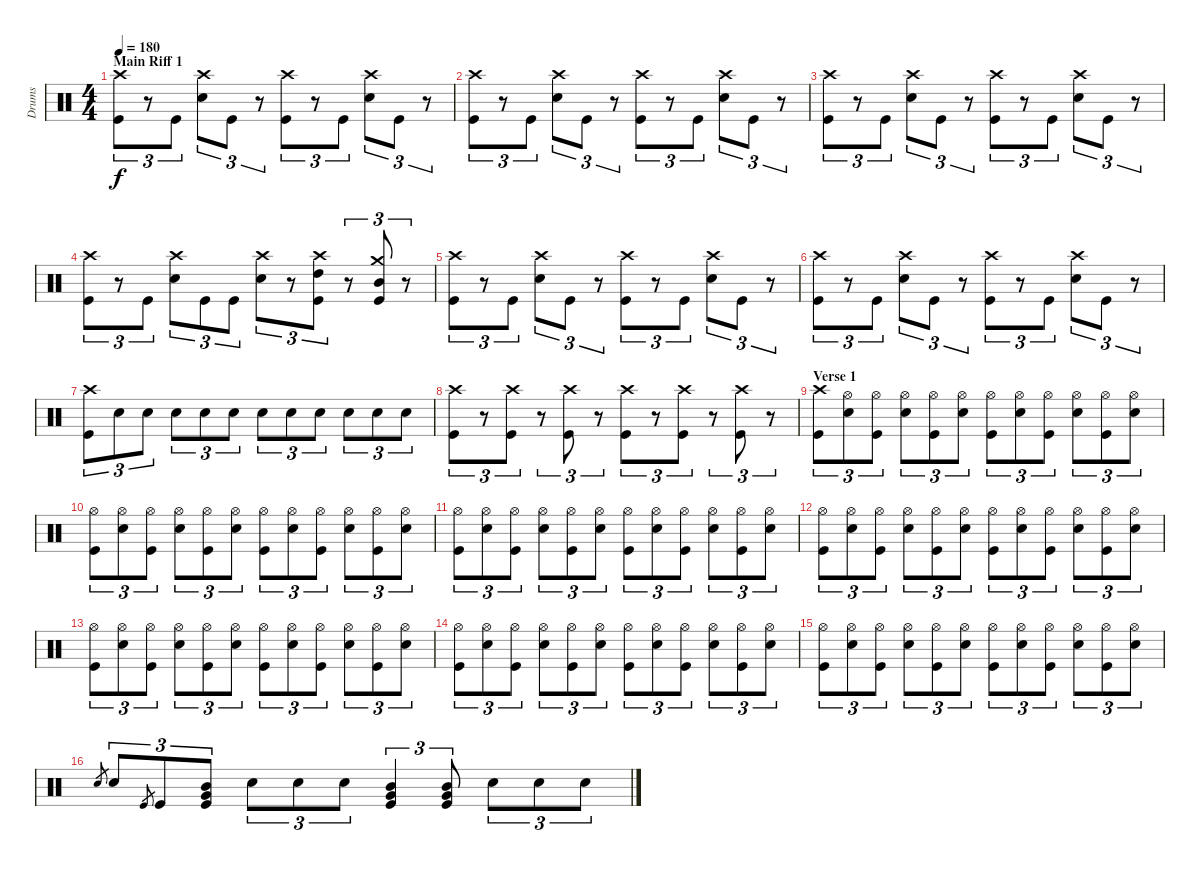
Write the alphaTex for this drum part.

\track ("Drums" "Drums") {instrument percussion}
\staff {score}
\articulation defaults
\ts (4 4)
\section ("" "Main Riff 1")
\tempo 180
\clef neutral
\ks c
("Crash high (hit)" "Kick (hit)").8{tu (3 2) dy f} r.8{tu (3 2)} "Kick (hit)".8{tu (3 2)} ("Crash high (hit)" "Snare (hit) 2").8{tu (3 2)} "Kick (hit)".8{tu (3 2)} r.8{tu (3 2)} ("Crash high (hit)" "Kick (hit)").8{tu (3 2)} r.8{tu (3 2)} "Kick (hit)".8{tu (3 2)} ("Crash high (hit)" "Snare (hit) 2").8{tu (3 2)} "Kick (hit)".8{tu (3 2)} r.8{tu (3 2)} |
("Crash high (hit)" "Kick (hit)").8{tu (3 2)} r.8{tu (3 2)} "Kick (hit)".8{tu (3 2)} ("Crash high (hit)" "Snare (hit) 2").8{tu (3 2)} "Kick (hit)".8{tu (3 2)} r.8{tu (3 2)} ("Crash high (hit)" "Kick (hit)").8{tu (3 2)} r.8{tu (3 2)} "Kick (hit)".8{tu (3 2)} ("Crash high (hit)" "Snare (hit) 2").8{tu (3 2)} "Kick (hit)".8{tu (3 2)} r.8{tu (3 2)} |
("Crash high (hit)" "Kick (hit)").8{tu (3 2)} r.8{tu (3 2)} "Kick (hit)".8{tu (3 2)} ("Crash high (hit)" "Snare (hit) 2").8{tu (3 2)} "Kick (hit)".8{tu (3 2)} r.8{tu (3 2)} ("Crash high (hit)" "Kick (hit)").8{tu (3 2)} r.8{tu (3 2)} "Kick (hit)".8{tu (3 2)} ("Crash high (hit)" "Snare (hit) 2").8{tu (3 2)} "Kick (hit)".8{tu (3 2)} r.8{tu (3 2)} |
("Crash high (hit)" "Kick (hit)").8{tu (3 2)} r.8{tu (3 2)} "Kick (hit)".8{tu (3 2)} ("Crash high (hit)" "Snare (hit) 2").8{tu (3 2)} "Kick (hit)".8{tu (3 2)} "Kick (hit)".8{tu (3 2)} ("Crash high (hit)" "Snare (hit) 2").8{tu (3 2)} r.8{tu (3 2)} ("Crash high (hit)" "High Tom (hit)" "Kick (hit)").8{tu (3 2)} r.8{tu (3 2)} ("Crash medium (hit)" "Mid Tom (hit)" "Kick (hit)").8{tu (3 2)} r.8{tu (3 2)} |
("Crash high (hit)" "Kick (hit)").8{tu (3 2)} r.8{tu (3 2)} "Kick (hit)".8{tu (3 2)} ("Crash high (hit)" "Snare (hit) 2").8{tu (3 2)} "Kick (hit)".8{tu (3 2)} r.8{tu (3 2)} ("Crash high (hit)" "Kick (hit)").8{tu (3 2)} r.8{tu (3 2)} "Kick (hit)".8{tu (3 2)} ("Crash high (hit)" "Snare (hit) 2").8{tu (3 2)} "Kick (hit)".8{tu (3 2)} r.8{tu (3 2)} |
("Crash high (hit)" "Kick (hit)").8{tu (3 2)} r.8{tu (3 2)} "Kick (hit)".8{tu (3 2)} ("Crash high (hit)" "Snare (hit) 2").8{tu (3 2)} "Kick (hit)".8{tu (3 2)} r.8{tu (3 2)} ("Crash high (hit)" "Kick (hit)").8{tu (3 2)} r.8{tu (3 2)} "Kick (hit)".8{tu (3 2)} ("Crash high (hit)" "Snare (hit) 2").8{tu (3 2)} "Kick (hit)".8{tu (3 2)} r.8{tu (3 2)} |
("Crash high (hit)" "Kick (hit)").8{tu (3 2)} "Snare (hit) 2".8{tu (3 2)} "Snare (hit) 2".8{tu (3 2)} "Snare (hit) 2".8{tu (3 2)} "Snare (hit) 2".8{tu (3 2)} "Snare (hit) 2".8{tu (3 2)} "Snare (hit) 2".8{tu (3 2)} "Snare (hit) 2".8{tu (3 2)} "Snare (hit) 2".8{tu (3 2)} "Snare (hit) 2".8{tu (3 2)} "Snare (hit) 2".8{tu (3 2)} "Snare (hit) 2".8{tu (3 2)} |
("Crash high (hit)" "Kick (hit)").8{tu (3 2)} r.8{tu (3 2)} ("Crash high (hit)" "Kick (hit)").8{tu (3 2)} r.8{tu (3 2)} ("Crash high (hit)" "Kick (hit)").8{tu (3 2)} r.8{tu (3 2)} ("Crash high (hit)" "Kick (hit)").8{tu (3 2)} r.8{tu (3 2)} ("Crash high (hit)" "Kick (hit)").8{tu (3 2)} r.8{tu (3 2)} ("Crash high (hit)" "Kick (hit)").8{tu (3 2)} r.8{tu (3 2)} |
\section ("" "Verse 1")
("Crash high (hit)" "Kick (hit)").8{tu (3 2)} ("Hi-Hat (open)" "Snare (hit) 2").8{tu (3 2)} ("Hi-Hat (open)" "Kick (hit)").8{tu (3 2)} ("Hi-Hat (open)" "Snare (hit) 2").8{tu (3 2)} ("Hi-Hat (open)" "Kick (hit)").8{tu (3 2)} ("Hi-Hat (open)" "Snare (hit) 2").8{tu (3 2)} ("Hi-Hat (open)" "Kick (hit)").8{tu (3 2)} ("Hi-Hat (open)" "Snare (hit) 2").8{tu (3 2)} ("Hi-Hat (open)" "Kick (hit)").8{tu (3 2)} ("Hi-Hat (open)" "Snare (hit) 2").8{tu (3 2)} ("Hi-Hat (open)" "Kick (hit)").8{tu (3 2)} ("Hi-Hat (open)" "Snare (hit) 2").8{tu (3 2)} |
("Hi-Hat (open)" "Kick (hit)").8{tu (3 2)} ("Hi-Hat (open)" "Snare (hit) 2").8{tu (3 2)} ("Hi-Hat (open)" "Kick (hit)").8{tu (3 2)} ("Hi-Hat (open)" "Snare (hit) 2").8{tu (3 2)} ("Hi-Hat (open)" "Kick (hit)").8{tu (3 2)} ("Hi-Hat (open)" "Snare (hit) 2").8{tu (3 2)} ("Hi-Hat (open)" "Kick (hit)").8{tu (3 2)} ("Hi-Hat (open)" "Snare (hit) 2").8{tu (3 2)} ("Hi-Hat (open)" "Kick (hit)").8{tu (3 2)} ("Hi-Hat (open)" "Snare (hit) 2").8{tu (3 2)} ("Hi-Hat (open)" "Kick (hit)").8{tu (3 2)} ("Hi-Hat (open)" "Snare (hit) 2").8{tu (3 2)} |
("Hi-Hat (open)" "Kick (hit)").8{tu (3 2)} ("Hi-Hat (open)" "Snare (hit) 2").8{tu (3 2)} ("Hi-Hat (open)" "Kick (hit)").8{tu (3 2)} ("Hi-Hat (open)" "Snare (hit) 2").8{tu (3 2)} ("Hi-Hat (open)" "Kick (hit)").8{tu (3 2)} ("Hi-Hat (open)" "Snare (hit) 2").8{tu (3 2)} ("Hi-Hat (open)" "Kick (hit)").8{tu (3 2)} ("Hi-Hat (open)" "Snare (hit) 2").8{tu (3 2)} ("Hi-Hat (open)" "Kick (hit)").8{tu (3 2)} ("Hi-Hat (open)" "Snare (hit) 2").8{tu (3 2)} ("Hi-Hat (open)" "Kick (hit)").8{tu (3 2)} ("Hi-Hat (open)" "Snare (hit) 2").8{tu (3 2)} |
("Hi-Hat (open)" "Kick (hit)").8{tu (3 2)} ("Hi-Hat (open)" "Snare (hit) 2").8{tu (3 2)} ("Hi-Hat (open)" "Kick (hit)").8{tu (3 2)} ("Hi-Hat (open)" "Snare (hit) 2").8{tu (3 2)} ("Hi-Hat (open)" "Kick (hit)").8{tu (3 2)} ("Hi-Hat (open)" "Snare (hit) 2").8{tu (3 2)} ("Hi-Hat (open)" "Kick (hit)").8{tu (3 2)} ("Hi-Hat (open)" "Snare (hit) 2").8{tu (3 2)} ("Hi-Hat (open)" "Kick (hit)").8{tu (3 2)} ("Hi-Hat (open)" "Snare (hit) 2").8{tu (3 2)} ("Hi-Hat (open)" "Kick (hit)").8{tu (3 2)} ("Hi-Hat (open)" "Snare (hit) 2").8{tu (3 2)} |
("Hi-Hat (open)" "Kick (hit)").8{tu (3 2)} ("Hi-Hat (open)" "Snare (hit) 2").8{tu (3 2)} ("Hi-Hat (open)" "Kick (hit)").8{tu (3 2)} ("Hi-Hat (open)" "Snare (hit) 2").8{tu (3 2)} ("Hi-Hat (open)" "Kick (hit)").8{tu (3 2)} ("Hi-Hat (open)" "Snare (hit) 2").8{tu (3 2)} ("Hi-Hat (open)" "Kick (hit)").8{tu (3 2)} ("Hi-Hat (open)" "Snare (hit) 2").8{tu (3 2)} ("Hi-Hat (open)" "Kick (hit)").8{tu (3 2)} ("Hi-Hat (open)" "Snare (hit) 2").8{tu (3 2)} ("Hi-Hat (open)" "Kick (hit)").8{tu (3 2)} ("Hi-Hat (open)" "Snare (hit) 2").8{tu (3 2)} |
("Hi-Hat (open)" "Kick (hit)").8{tu (3 2)} ("Hi-Hat (open)" "Snare (hit) 2").8{tu (3 2)} ("Hi-Hat (open)" "Kick (hit)").8{tu (3 2)} ("Hi-Hat (open)" "Snare (hit) 2").8{tu (3 2)} ("Hi-Hat (open)" "Kick (hit)").8{tu (3 2)} ("Hi-Hat (open)" "Snare (hit) 2").8{tu (3 2)} ("Hi-Hat (open)" "Kick (hit)").8{tu (3 2)} ("Hi-Hat (open)" "Snare (hit) 2").8{tu (3 2)} ("Hi-Hat (open)" "Kick (hit)").8{tu (3 2)} ("Hi-Hat (open)" "Snare (hit) 2").8{tu (3 2)} ("Hi-Hat (open)" "Kick (hit)").8{tu (3 2)} ("Hi-Hat (open)" "Snare (hit) 2").8{tu (3 2)} |
("Hi-Hat (open)" "Kick (hit)").8{tu (3 2)} ("Hi-Hat (open)" "Snare (hit) 2").8{tu (3 2)} ("Hi-Hat (open)" "Kick (hit)").8{tu (3 2)} ("Hi-Hat (open)" "Snare (hit) 2").8{tu (3 2)} ("Hi-Hat (open)" "Kick (hit)").8{tu (3 2)} ("Hi-Hat (open)" "Snare (hit) 2").8{tu (3 2)} ("Hi-Hat (open)" "Kick (hit)").8{tu (3 2)} ("Hi-Hat (open)" "Snare (hit) 2").8{tu (3 2)} ("Hi-Hat (open)" "Kick (hit)").8{tu (3 2)} ("Hi-Hat (open)" "Snare (hit) 2").8{tu (3 2)} ("Hi-Hat (open)" "Kick (hit)").8{tu (3 2)} ("Hi-Hat (open)" "Snare (hit) 2").8{tu (3 2)} |
"Snare (hit) 2".8{gr} "Snare (hit) 2".8{tu (3 2)} "Kick (hit)".8{gr} "Kick (hit)".8{tu (3 2)} ("Mid Tom (hit)" "Very Low Tom (hit)" "Kick (hit)").8{tu (3 2)} "Snare (hit) 2".8{tu (3 2)} "Snare (hit) 2".8{tu (3 2)} "Snare (hit) 2".8{tu (3 2)} ("Mid Tom (hit)" "Very Low Tom (hit)" "Kick (hit)").4{tu (3 2)} ("Mid Tom (hit)" "Very Low Tom (hit)" "Kick (hit)").8{tu (3 2)} "Snare (hit) 2".8{tu (3 2)} "Snare (hit) 2".8{tu (3 2)} "Snare (hit) 2".8{tu (3 2)}
